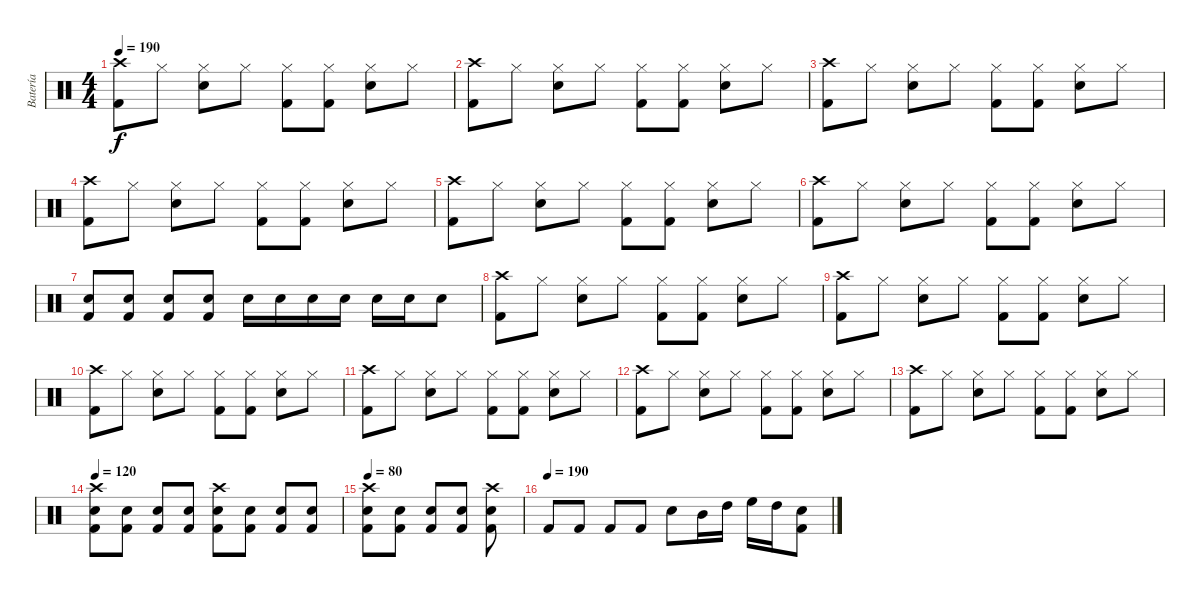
\track ("Batería" "Batería") {instrument percussion}
\staff {score}
\articulation defaults
\ts (4 4)
\tempo 190
\clef neutral
\ks c
("Crash high (hit)" "Kick (hit) 2").8{dy f} "Hi-Hat (closed)".8 ("Hi-Hat (closed)" "Snare (hit) 2").8 "Hi-Hat (closed)".8 ("Hi-Hat (closed)" "Kick (hit) 2").8 ("Hi-Hat (closed)" "Kick (hit) 2").8 ("Hi-Hat (closed)" "Snare (hit) 2").8 "Hi-Hat (closed)".8 |
("Crash high (hit)" "Kick (hit) 2").8 "Hi-Hat (closed)".8 ("Hi-Hat (closed)" "Snare (hit) 2").8 "Hi-Hat (closed)".8 ("Hi-Hat (closed)" "Kick (hit) 2").8 ("Hi-Hat (closed)" "Kick (hit) 2").8 ("Hi-Hat (closed)" "Snare (hit) 2").8 "Hi-Hat (closed)".8 |
("Crash high (hit)" "Kick (hit) 2").8 "Hi-Hat (closed)".8 ("Hi-Hat (closed)" "Snare (hit) 2").8 "Hi-Hat (closed)".8 ("Hi-Hat (closed)" "Kick (hit) 2").8 ("Hi-Hat (closed)" "Kick (hit) 2").8 ("Hi-Hat (closed)" "Snare (hit) 2").8 "Hi-Hat (closed)".8 |
("Crash high (hit)" "Kick (hit) 2").8 "Hi-Hat (closed)".8 ("Hi-Hat (closed)" "Snare (hit) 2").8 "Hi-Hat (closed)".8 ("Hi-Hat (closed)" "Kick (hit) 2").8 ("Hi-Hat (closed)" "Kick (hit) 2").8 ("Hi-Hat (closed)" "Snare (hit) 2").8 "Hi-Hat (closed)".8 |
("Crash high (hit)" "Kick (hit) 2").8 "Hi-Hat (closed)".8 ("Hi-Hat (closed)" "Snare (hit) 2").8 "Hi-Hat (closed)".8 ("Hi-Hat (closed)" "Kick (hit) 2").8 ("Hi-Hat (closed)" "Kick (hit) 2").8 ("Hi-Hat (closed)" "Snare (hit) 2").8 "Hi-Hat (closed)".8 |
("Crash high (hit)" "Kick (hit) 2").8 "Hi-Hat (closed)".8 ("Hi-Hat (closed)" "Snare (hit) 2").8 "Hi-Hat (closed)".8 ("Hi-Hat (closed)" "Kick (hit) 2").8 ("Hi-Hat (closed)" "Kick (hit) 2").8 ("Hi-Hat (closed)" "Snare (hit) 2").8 "Hi-Hat (closed)".8 |
("Snare (hit) 2" "Kick (hit) 2").8 ("Snare (hit) 2" "Kick (hit) 2").8 ("Snare (hit) 2" "Kick (hit) 2").8 ("Snare (hit) 2" "Kick (hit) 2").8 "Snare (hit) 2".16 "Snare (hit) 2".16 "Snare (hit) 2".16 "Snare (hit) 2".16 "Snare (hit) 2".16 "Snare (hit) 2".16 "Snare (hit) 2".8 |
("Crash high (hit)" "Kick (hit) 2").8 "Hi-Hat (closed)".8 ("Hi-Hat (closed)" "Snare (hit) 2").8 "Hi-Hat (closed)".8 ("Hi-Hat (closed)" "Kick (hit) 2").8 ("Hi-Hat (closed)" "Kick (hit) 2").8 ("Hi-Hat (closed)" "Snare (hit) 2").8 "Hi-Hat (closed)".8 |
("Crash high (hit)" "Kick (hit) 2").8 "Hi-Hat (closed)".8 ("Hi-Hat (closed)" "Snare (hit) 2").8 "Hi-Hat (closed)".8 ("Hi-Hat (closed)" "Kick (hit) 2").8 ("Hi-Hat (closed)" "Kick (hit) 2").8 ("Hi-Hat (closed)" "Snare (hit) 2").8 "Hi-Hat (closed)".8 |
("Crash high (hit)" "Kick (hit) 2").8 "Hi-Hat (closed)".8 ("Hi-Hat (closed)" "Snare (hit) 2").8 "Hi-Hat (closed)".8 ("Hi-Hat (closed)" "Kick (hit) 2").8 ("Hi-Hat (closed)" "Kick (hit) 2").8 ("Hi-Hat (closed)" "Snare (hit) 2").8 "Hi-Hat (closed)".8 |
("Crash high (hit)" "Kick (hit) 2").8 "Hi-Hat (closed)".8 ("Hi-Hat (closed)" "Snare (hit) 2").8 "Hi-Hat (closed)".8 ("Hi-Hat (closed)" "Kick (hit) 2").8 ("Hi-Hat (closed)" "Kick (hit) 2").8 ("Hi-Hat (closed)" "Snare (hit) 2").8 "Hi-Hat (closed)".8 |
("Crash high (hit)" "Kick (hit) 2").8 "Hi-Hat (closed)".8 ("Hi-Hat (closed)" "Snare (hit) 2").8 "Hi-Hat (closed)".8 ("Hi-Hat (closed)" "Kick (hit) 2").8 ("Hi-Hat (closed)" "Kick (hit) 2").8 ("Hi-Hat (closed)" "Snare (hit) 2").8 "Hi-Hat (closed)".8 |
("Crash high (hit)" "Kick (hit) 2").8 "Hi-Hat (closed)".8 ("Hi-Hat (closed)" "Snare (hit) 2").8 "Hi-Hat (closed)".8 ("Hi-Hat (closed)" "Kick (hit) 2").8 ("Hi-Hat (closed)" "Kick (hit) 2").8 ("Hi-Hat (closed)" "Snare (hit) 2").8 "Hi-Hat (closed)".8 |
\tempo 120
("Crash high (hit)" "Snare (hit) 2" "Kick (hit) 2").8 ("Snare (hit) 2" "Kick (hit) 2").8 ("Snare (hit) 2" "Kick (hit) 2").8 ("Snare (hit) 2" "Kick (hit) 2").8 ("Crash high (hit)" "Snare (hit) 2" "Kick (hit) 2").8 ("Snare (hit) 2" "Kick (hit) 2").8 ("Snare (hit) 2" "Kick (hit) 2").8 ("Snare (hit) 2" "Kick (hit) 2").8 |
\tempo 80
("Crash high (hit)" "Snare (hit) 2" "Kick (hit) 2").8 ("Snare (hit) 2" "Kick (hit) 2").8 ("Snare (hit) 2" "Kick (hit) 2").8 ("Snare (hit) 2" "Kick (hit) 2").8 ("Crash high (hit)" "Snare (hit) 2" "Kick (hit) 2").8 |
\tempo (190)
"Kick (hit) 2".8 "Kick (hit) 2".8 "Kick (hit) 2".8 "Kick (hit) 2".8 "Snare (hit) 2".8 "Mid Tom (hit)".16 "High Tom (hit)".16 "High Floor Tom (hit)".16 "High Tom (hit)".16 ("Snare (hit) 2" "Kick (hit) 2").8
